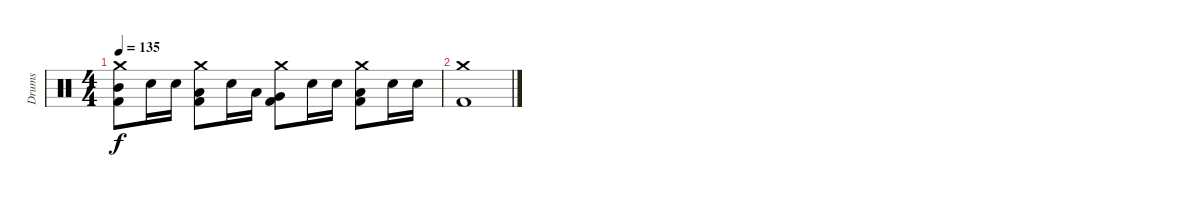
\track ("Drums" "Drums") {instrument percussion}
\staff {score}
\articulation defaults
\ts (4 4)
\tempo 135
\clef neutral
\ks c
("Crash medium (hit)" "Kick (hit) 2" "Mid Tom (hit)").8{dy f} "Electric Snare (hit)".16 "Electric Snare (hit)".16 ("Crash medium (hit)" "Kick (hit) 2" "Low Tom (hit)").8 "Electric Snare (hit)".16 "Low Tom (hit)".16 ("Crash medium (hit)" "Kick (hit) 2" "Very Low Tom (hit)").8 "Electric Snare (hit)".16 "Electric Snare (hit)".16 ("Crash medium (hit)" "Kick (hit) 2" "Low Tom (hit)").8 "Electric Snare (hit)".16 "Electric Snare (hit)".16 |
("Crash medium (hit)" "Kick (hit) 2").1
